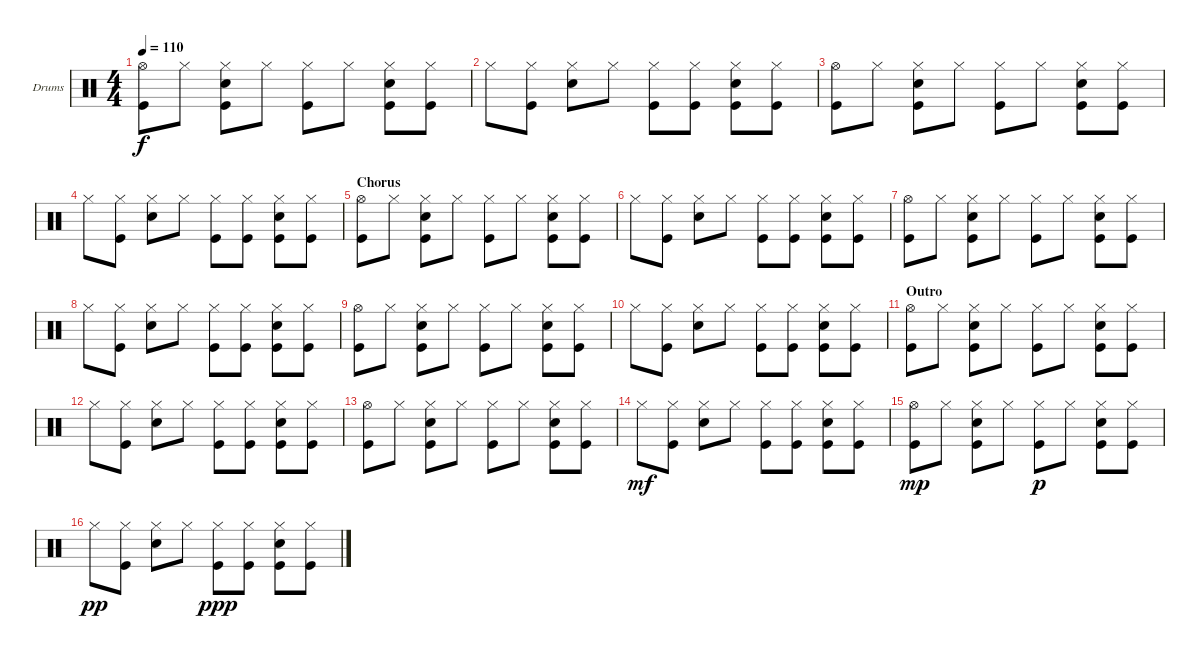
\defaultSystemsLayout 4
\bracketExtendMode groupsimilarinstruments
\firstSystemTrackNameOrientation horizontal
\otherSystemsTrackNameOrientation horizontal
\track ("Drumkit" "Drums") {instrument percussion}
\staff {score}
\articulation defaults
\ts (4 4)
\tempo 110
\clef neutral
\ks c
("Kick (hit)" "Hi-Hat (open)").8{dy f} "Hi-Hat (closed)".8 ("Kick (hit)" "Hi-Hat (closed)" "Snare (hit) 2").8 "Hi-Hat (closed)".8 ("Kick (hit)" "Hi-Hat (closed)").8 "Hi-Hat (closed)".8 ("Kick (hit)" "Hi-Hat (closed)" "Snare (hit) 2").8 ("Kick (hit)" "Hi-Hat (closed)").8 |
"Hi-Hat (closed)".8 ("Kick (hit)" "Hi-Hat (closed)").8 ("Hi-Hat (closed)" "Snare (hit) 2").8 "Hi-Hat (closed)".8 ("Kick (hit)" "Hi-Hat (closed)").8 ("Kick (hit)" "Hi-Hat (closed)").8 ("Kick (hit)" "Hi-Hat (closed)" "Snare (hit) 2").8 ("Kick (hit)" "Hi-Hat (closed)").8 |
("Kick (hit)" "Hi-Hat (open)").8 "Hi-Hat (closed)".8 ("Kick (hit)" "Hi-Hat (closed)" "Snare (hit) 2").8 "Hi-Hat (closed)".8 ("Kick (hit)" "Hi-Hat (closed)").8 "Hi-Hat (closed)".8 ("Kick (hit)" "Hi-Hat (closed)" "Snare (hit) 2").8 ("Kick (hit)" "Hi-Hat (closed)").8 |
"Hi-Hat (closed)".8 ("Kick (hit)" "Hi-Hat (closed)").8 ("Hi-Hat (closed)" "Snare (hit) 2").8 "Hi-Hat (closed)".8 ("Kick (hit)" "Hi-Hat (closed)").8 ("Kick (hit)" "Hi-Hat (closed)").8 ("Kick (hit)" "Hi-Hat (closed)" "Snare (hit) 2").8 ("Kick (hit)" "Hi-Hat (closed)").8 |
\section ("" "Chorus")
("Kick (hit)" "Hi-Hat (open)").8 "Hi-Hat (closed)".8 ("Kick (hit)" "Hi-Hat (closed)" "Snare (hit) 2").8 "Hi-Hat (closed)".8 ("Kick (hit)" "Hi-Hat (closed)").8 "Hi-Hat (closed)".8 ("Kick (hit)" "Hi-Hat (closed)" "Snare (hit) 2").8 ("Kick (hit)" "Hi-Hat (closed)").8 |
"Hi-Hat (closed)".8 ("Kick (hit)" "Hi-Hat (closed)").8 ("Hi-Hat (closed)" "Snare (hit) 2").8 "Hi-Hat (closed)".8 ("Kick (hit)" "Hi-Hat (closed)").8 ("Kick (hit)" "Hi-Hat (closed)").8 ("Kick (hit)" "Hi-Hat (closed)" "Snare (hit) 2").8 ("Kick (hit)" "Hi-Hat (closed)").8 |
("Kick (hit)" "Hi-Hat (open)").8 "Hi-Hat (closed)".8 ("Kick (hit)" "Hi-Hat (closed)" "Snare (hit) 2").8 "Hi-Hat (closed)".8 ("Kick (hit)" "Hi-Hat (closed)").8 "Hi-Hat (closed)".8 ("Kick (hit)" "Hi-Hat (closed)" "Snare (hit) 2").8 ("Kick (hit)" "Hi-Hat (closed)").8 |
"Hi-Hat (closed)".8 ("Kick (hit)" "Hi-Hat (closed)").8 ("Hi-Hat (closed)" "Snare (hit) 2").8 "Hi-Hat (closed)".8 ("Kick (hit)" "Hi-Hat (closed)").8 ("Kick (hit)" "Hi-Hat (closed)").8 ("Kick (hit)" "Hi-Hat (closed)" "Snare (hit) 2").8 ("Kick (hit)" "Hi-Hat (closed)").8 |
("Kick (hit)" "Hi-Hat (open)").8 "Hi-Hat (closed)".8 ("Kick (hit)" "Hi-Hat (closed)" "Snare (hit) 2").8 "Hi-Hat (closed)".8 ("Kick (hit)" "Hi-Hat (closed)").8 "Hi-Hat (closed)".8 ("Kick (hit)" "Hi-Hat (closed)" "Snare (hit) 2").8 ("Kick (hit)" "Hi-Hat (closed)").8 |
"Hi-Hat (closed)".8 ("Kick (hit)" "Hi-Hat (closed)").8 ("Hi-Hat (closed)" "Snare (hit) 2").8 "Hi-Hat (closed)".8 ("Kick (hit)" "Hi-Hat (closed)").8 ("Kick (hit)" "Hi-Hat (closed)").8 ("Kick (hit)" "Hi-Hat (closed)" "Snare (hit) 2").8 ("Kick (hit)" "Hi-Hat (closed)").8 |
\section ("" "Outro")
("Kick (hit)" "Hi-Hat (open)").8 "Hi-Hat (closed)".8 ("Kick (hit)" "Hi-Hat (closed)" "Snare (hit) 2").8 "Hi-Hat (closed)".8 ("Kick (hit)" "Hi-Hat (closed)").8 "Hi-Hat (closed)".8 ("Kick (hit)" "Hi-Hat (closed)" "Snare (hit) 2").8 ("Kick (hit)" "Hi-Hat (closed)").8 |
"Hi-Hat (closed)".8 ("Kick (hit)" "Hi-Hat (closed)").8 ("Hi-Hat (closed)" "Snare (hit) 2").8 "Hi-Hat (closed)".8 ("Kick (hit)" "Hi-Hat (closed)").8 ("Kick (hit)" "Hi-Hat (closed)").8 ("Kick (hit)" "Hi-Hat (closed)" "Snare (hit) 2").8 ("Kick (hit)" "Hi-Hat (closed)").8 |
("Kick (hit)" "Hi-Hat (open)").8 "Hi-Hat (closed)".8 ("Kick (hit)" "Hi-Hat (closed)" "Snare (hit) 2").8 "Hi-Hat (closed)".8 ("Kick (hit)" "Hi-Hat (closed)").8 "Hi-Hat (closed)".8 ("Kick (hit)" "Hi-Hat (closed)" "Snare (hit) 2").8 ("Kick (hit)" "Hi-Hat (closed)").8 |
"Hi-Hat (closed)".8{dy mf} ("Kick (hit)" "Hi-Hat (closed)").8 ("Hi-Hat (closed)" "Snare (hit) 2").8 "Hi-Hat (closed)".8 ("Kick (hit)" "Hi-Hat (closed)").8 ("Kick (hit)" "Hi-Hat (closed)").8 ("Kick (hit)" "Hi-Hat (closed)" "Snare (hit) 2").8 ("Kick (hit)" "Hi-Hat (closed)").8 |
("Kick (hit)" "Hi-Hat (open)").8{dy mp} "Hi-Hat (closed)".8 ("Kick (hit)" "Hi-Hat (closed)" "Snare (hit) 2").8 "Hi-Hat (closed)".8 ("Kick (hit)" "Hi-Hat (closed)").8{dy p} "Hi-Hat (closed)".8 ("Kick (hit)" "Hi-Hat (closed)" "Snare (hit) 2").8 ("Kick (hit)" "Hi-Hat (closed)").8 |
"Hi-Hat (closed)".8{dy pp} ("Kick (hit)" "Hi-Hat (closed)").8 ("Hi-Hat (closed)" "Snare (hit) 2").8 "Hi-Hat (closed)".8 ("Kick (hit)" "Hi-Hat (closed)").8{dy ppp} ("Kick (hit)" "Hi-Hat (closed)").8 ("Kick (hit)" "Hi-Hat (closed)" "Snare (hit) 2").8 ("Kick (hit)" "Hi-Hat (closed)").8
